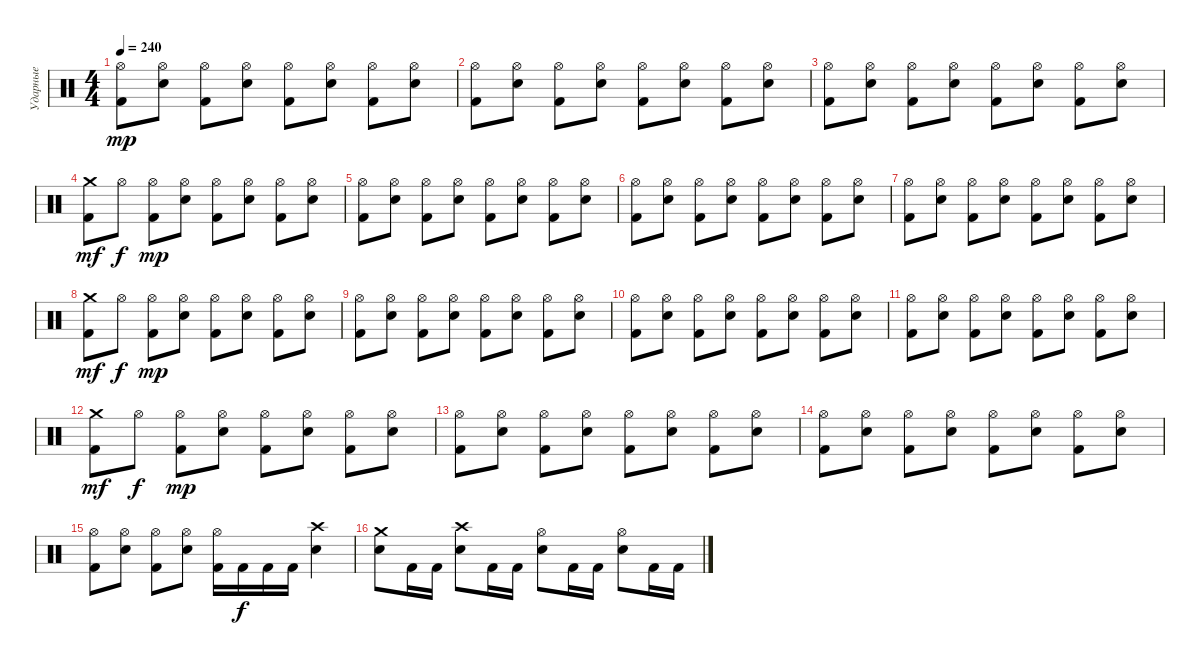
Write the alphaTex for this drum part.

\track ("Ударные" "Ударные") {instrument percussion}
\staff {score}
\articulation defaults
\ts (4 4)
\tempo 240
\clef neutral
\ks c
("Hi-Hat (open)" "Kick (hit) 2").8{dy mp} ("Hi-Hat (open)" "Snare (hit) 2").8 ("Hi-Hat (open)" "Kick (hit) 2").8 ("Hi-Hat (open)" "Snare (hit) 2").8 ("Hi-Hat (open)" "Kick (hit) 2").8 ("Hi-Hat (open)" "Snare (hit) 2").8 ("Hi-Hat (open)" "Kick (hit) 2").8 ("Hi-Hat (open)" "Snare (hit) 2").8 |
("Hi-Hat (open)" "Kick (hit) 2").8 ("Hi-Hat (open)" "Snare (hit) 2").8 ("Hi-Hat (open)" "Kick (hit) 2").8 ("Hi-Hat (open)" "Snare (hit) 2").8 ("Hi-Hat (open)" "Kick (hit) 2").8 ("Hi-Hat (open)" "Snare (hit) 2").8 ("Hi-Hat (open)" "Kick (hit) 2").8 ("Hi-Hat (open)" "Snare (hit) 2").8 |
("Hi-Hat (open)" "Kick (hit) 2").8 ("Hi-Hat (open)" "Snare (hit) 2").8 ("Hi-Hat (open)" "Kick (hit) 2").8 ("Hi-Hat (open)" "Snare (hit) 2").8 ("Hi-Hat (open)" "Kick (hit) 2").8 ("Hi-Hat (open)" "Snare (hit) 2").8 ("Hi-Hat (open)" "Kick (hit) 2").8 ("Hi-Hat (open)" "Snare (hit) 2").8 |
("Crash medium (hit)" "Kick (hit) 2").8{dy mf} "Hi-Hat (open)".8{dy f} ("Hi-Hat (open)" "Kick (hit) 2").8{dy mp} ("Hi-Hat (open)" "Snare (hit) 2").8 ("Hi-Hat (open)" "Kick (hit) 2").8 ("Hi-Hat (open)" "Snare (hit) 2").8 ("Hi-Hat (open)" "Kick (hit) 2").8 ("Hi-Hat (open)" "Snare (hit) 2").8 |
("Hi-Hat (open)" "Kick (hit) 2").8 ("Hi-Hat (open)" "Snare (hit) 2").8 ("Hi-Hat (open)" "Kick (hit) 2").8 ("Hi-Hat (open)" "Snare (hit) 2").8 ("Hi-Hat (open)" "Kick (hit) 2").8 ("Hi-Hat (open)" "Snare (hit) 2").8 ("Hi-Hat (open)" "Kick (hit) 2").8 ("Hi-Hat (open)" "Snare (hit) 2").8 |
("Hi-Hat (open)" "Kick (hit) 2").8 ("Hi-Hat (open)" "Snare (hit) 2").8 ("Hi-Hat (open)" "Kick (hit) 2").8 ("Hi-Hat (open)" "Snare (hit) 2").8 ("Hi-Hat (open)" "Kick (hit) 2").8 ("Hi-Hat (open)" "Snare (hit) 2").8 ("Hi-Hat (open)" "Kick (hit) 2").8 ("Hi-Hat (open)" "Snare (hit) 2").8 |
("Hi-Hat (open)" "Kick (hit) 2").8 ("Hi-Hat (open)" "Snare (hit) 2").8 ("Hi-Hat (open)" "Kick (hit) 2").8 ("Hi-Hat (open)" "Snare (hit) 2").8 ("Hi-Hat (open)" "Kick (hit) 2").8 ("Hi-Hat (open)" "Snare (hit) 2").8 ("Hi-Hat (open)" "Kick (hit) 2").8 ("Hi-Hat (open)" "Snare (hit) 2").8 |
("Crash medium (hit)" "Kick (hit) 2").8{dy mf} "Hi-Hat (open)".8{dy f} ("Hi-Hat (open)" "Kick (hit) 2").8{dy mp} ("Hi-Hat (open)" "Snare (hit) 2").8 ("Hi-Hat (open)" "Kick (hit) 2").8 ("Hi-Hat (open)" "Snare (hit) 2").8 ("Hi-Hat (open)" "Kick (hit) 2").8 ("Hi-Hat (open)" "Snare (hit) 2").8 |
("Hi-Hat (open)" "Kick (hit) 2").8 ("Hi-Hat (open)" "Snare (hit) 2").8 ("Hi-Hat (open)" "Kick (hit) 2").8 ("Hi-Hat (open)" "Snare (hit) 2").8 ("Hi-Hat (open)" "Kick (hit) 2").8 ("Hi-Hat (open)" "Snare (hit) 2").8 ("Hi-Hat (open)" "Kick (hit) 2").8 ("Hi-Hat (open)" "Snare (hit) 2").8 |
("Hi-Hat (open)" "Kick (hit) 2").8 ("Hi-Hat (open)" "Snare (hit) 2").8 ("Hi-Hat (open)" "Kick (hit) 2").8 ("Hi-Hat (open)" "Snare (hit) 2").8 ("Hi-Hat (open)" "Kick (hit) 2").8 ("Hi-Hat (open)" "Snare (hit) 2").8 ("Hi-Hat (open)" "Kick (hit) 2").8 ("Hi-Hat (open)" "Snare (hit) 2").8 |
("Hi-Hat (open)" "Kick (hit) 2").8 ("Hi-Hat (open)" "Snare (hit) 2").8 ("Hi-Hat (open)" "Kick (hit) 2").8 ("Hi-Hat (open)" "Snare (hit) 2").8 ("Hi-Hat (open)" "Kick (hit) 2").8 ("Hi-Hat (open)" "Snare (hit) 2").8 ("Hi-Hat (open)" "Kick (hit) 2").8 ("Hi-Hat (open)" "Snare (hit) 2").8 |
("Crash medium (hit)" "Kick (hit) 2").8{dy mf} "Hi-Hat (open)".8{dy f} ("Hi-Hat (open)" "Kick (hit) 2").8{dy mp} ("Hi-Hat (open)" "Snare (hit) 2").8 ("Hi-Hat (open)" "Kick (hit) 2").8 ("Hi-Hat (open)" "Snare (hit) 2").8 ("Hi-Hat (open)" "Kick (hit) 2").8 ("Hi-Hat (open)" "Snare (hit) 2").8 |
("Hi-Hat (open)" "Kick (hit) 2").8 ("Hi-Hat (open)" "Snare (hit) 2").8 ("Hi-Hat (open)" "Kick (hit) 2").8 ("Hi-Hat (open)" "Snare (hit) 2").8 ("Hi-Hat (open)" "Kick (hit) 2").8 ("Hi-Hat (open)" "Snare (hit) 2").8 ("Hi-Hat (open)" "Kick (hit) 2").8 ("Hi-Hat (open)" "Snare (hit) 2").8 |
("Hi-Hat (open)" "Kick (hit) 2").8 ("Hi-Hat (open)" "Snare (hit) 2").8 ("Hi-Hat (open)" "Kick (hit) 2").8 ("Hi-Hat (open)" "Snare (hit) 2").8 ("Hi-Hat (open)" "Kick (hit) 2").8 ("Hi-Hat (open)" "Snare (hit) 2").8 ("Hi-Hat (open)" "Kick (hit) 2").8 ("Hi-Hat (open)" "Snare (hit) 2").8 |
("Hi-Hat (open)" "Kick (hit) 2").8 ("Hi-Hat (open)" "Snare (hit) 2").8 ("Hi-Hat (open)" "Kick (hit) 2").8 ("Hi-Hat (open)" "Snare (hit) 2").8 ("Hi-Hat (open)" "Kick (hit) 2").16 "Kick (hit) 2".16{dy f} "Kick (hit) 2".16 "Kick (hit) 2".16 ("Crash high (hit)" "Snare (hit) 2").4 |
("Crash medium (hit)" "Snare (hit) 2").8 "Kick (hit) 2".16 "Kick (hit) 2".16 ("Crash high (hit)" "Snare (hit) 2").8 "Kick (hit) 2".16 "Kick (hit) 2".16 ("Hi-Hat (open)" "Snare (hit) 2").8 "Kick (hit) 2".16 "Kick (hit) 2".16 ("Hi-Hat (open)" "Snare (hit) 2").8 "Kick (hit) 2".16 "Kick (hit) 2".16
